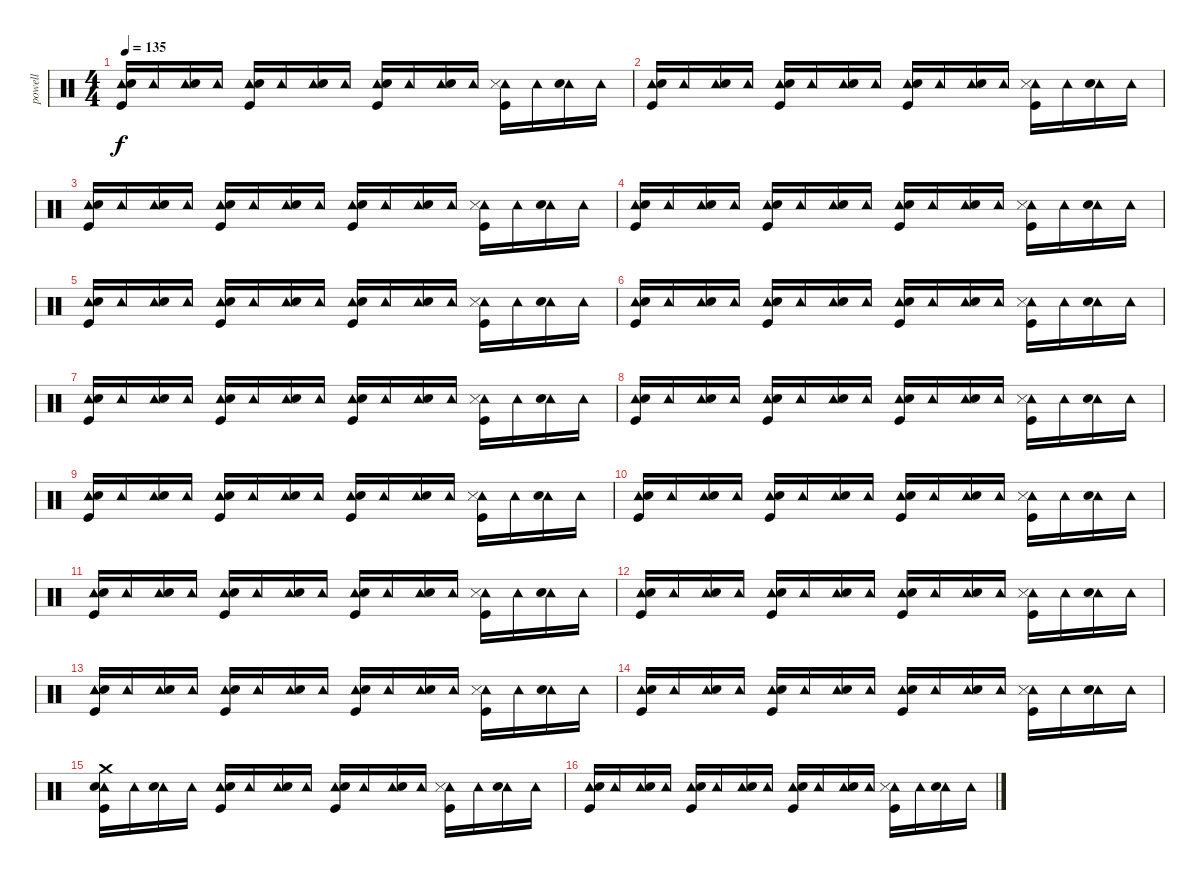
\track ("powell" "powell") {instrument percussion}
\staff {score}
\articulation defaults
\ts (4 4)
\tempo 135
\clef neutral
\ks c
("Tambourine (hit)" "Electric Snare (hit)" "Kick (hit)").16{dy f} "Tambourine (hit)".16 ("Tambourine (hit)" "Electric Snare (hit)").16 "Tambourine (hit)".16 ("Tambourine (hit)" "Electric Snare (hit)" "Kick (hit)").16 "Tambourine (hit)".16 ("Tambourine (hit)" "Electric Snare (hit)").16 "Tambourine (hit)".16 ("Tambourine (hit)" "Electric Snare (hit)" "Kick (hit)").16 "Tambourine (hit)".16 ("Tambourine (hit)" "Electric Snare (hit)").16 "Tambourine (hit)".16 ("Tambourine (hit)" "Snare (side stick) 3" "Kick (hit)").16 "Tambourine (hit)".16 ("Tambourine (hit)" "Electric Snare (hit)").16 "Tambourine (hit)".16 |
("Tambourine (hit)" "Electric Snare (hit)" "Kick (hit)").16 "Tambourine (hit)".16 ("Tambourine (hit)" "Electric Snare (hit)").16 "Tambourine (hit)".16 ("Tambourine (hit)" "Electric Snare (hit)" "Kick (hit)").16 "Tambourine (hit)".16 ("Tambourine (hit)" "Electric Snare (hit)").16 "Tambourine (hit)".16 ("Tambourine (hit)" "Electric Snare (hit)" "Kick (hit)").16 "Tambourine (hit)".16 ("Tambourine (hit)" "Electric Snare (hit)").16 "Tambourine (hit)".16 ("Tambourine (hit)" "Snare (side stick) 3" "Kick (hit)").16 "Tambourine (hit)".16 ("Tambourine (hit)" "Electric Snare (hit)").16 "Tambourine (hit)".16 |
("Tambourine (hit)" "Electric Snare (hit)" "Kick (hit)").16 "Tambourine (hit)".16 ("Tambourine (hit)" "Electric Snare (hit)").16 "Tambourine (hit)".16 ("Tambourine (hit)" "Electric Snare (hit)" "Kick (hit)").16 "Tambourine (hit)".16 ("Tambourine (hit)" "Electric Snare (hit)").16 "Tambourine (hit)".16 ("Tambourine (hit)" "Electric Snare (hit)" "Kick (hit)").16 "Tambourine (hit)".16 ("Tambourine (hit)" "Electric Snare (hit)").16 "Tambourine (hit)".16 ("Tambourine (hit)" "Snare (side stick) 3" "Kick (hit)").16 "Tambourine (hit)".16 ("Tambourine (hit)" "Electric Snare (hit)").16 "Tambourine (hit)".16 |
("Tambourine (hit)" "Electric Snare (hit)" "Kick (hit)").16 "Tambourine (hit)".16 ("Tambourine (hit)" "Electric Snare (hit)").16 "Tambourine (hit)".16 ("Tambourine (hit)" "Electric Snare (hit)" "Kick (hit)").16 "Tambourine (hit)".16 ("Tambourine (hit)" "Electric Snare (hit)").16 "Tambourine (hit)".16 ("Tambourine (hit)" "Electric Snare (hit)" "Kick (hit)").16 "Tambourine (hit)".16 ("Tambourine (hit)" "Electric Snare (hit)").16 "Tambourine (hit)".16 ("Tambourine (hit)" "Snare (side stick) 3" "Kick (hit)").16 "Tambourine (hit)".16 ("Tambourine (hit)" "Electric Snare (hit)").16 "Tambourine (hit)".16 |
("Tambourine (hit)" "Electric Snare (hit)" "Kick (hit)").16 "Tambourine (hit)".16 ("Tambourine (hit)" "Electric Snare (hit)").16 "Tambourine (hit)".16 ("Tambourine (hit)" "Electric Snare (hit)" "Kick (hit)").16 "Tambourine (hit)".16 ("Tambourine (hit)" "Electric Snare (hit)").16 "Tambourine (hit)".16 ("Tambourine (hit)" "Electric Snare (hit)" "Kick (hit)").16 "Tambourine (hit)".16 ("Tambourine (hit)" "Electric Snare (hit)").16 "Tambourine (hit)".16 ("Tambourine (hit)" "Snare (side stick) 3" "Kick (hit)").16 "Tambourine (hit)".16 ("Tambourine (hit)" "Electric Snare (hit)").16 "Tambourine (hit)".16 |
("Tambourine (hit)" "Electric Snare (hit)" "Kick (hit)").16 "Tambourine (hit)".16 ("Tambourine (hit)" "Electric Snare (hit)").16 "Tambourine (hit)".16 ("Tambourine (hit)" "Electric Snare (hit)" "Kick (hit)").16 "Tambourine (hit)".16 ("Tambourine (hit)" "Electric Snare (hit)").16 "Tambourine (hit)".16 ("Tambourine (hit)" "Electric Snare (hit)" "Kick (hit)").16 "Tambourine (hit)".16 ("Tambourine (hit)" "Electric Snare (hit)").16 "Tambourine (hit)".16 ("Tambourine (hit)" "Snare (side stick) 3" "Kick (hit)").16 "Tambourine (hit)".16 ("Tambourine (hit)" "Electric Snare (hit)").16 "Tambourine (hit)".16 |
("Tambourine (hit)" "Electric Snare (hit)" "Kick (hit)").16 "Tambourine (hit)".16 ("Tambourine (hit)" "Electric Snare (hit)").16 "Tambourine (hit)".16 ("Tambourine (hit)" "Electric Snare (hit)" "Kick (hit)").16 "Tambourine (hit)".16 ("Tambourine (hit)" "Electric Snare (hit)").16 "Tambourine (hit)".16 ("Tambourine (hit)" "Electric Snare (hit)" "Kick (hit)").16 "Tambourine (hit)".16 ("Tambourine (hit)" "Electric Snare (hit)").16 "Tambourine (hit)".16 ("Tambourine (hit)" "Snare (side stick) 3" "Kick (hit)").16 "Tambourine (hit)".16 ("Tambourine (hit)" "Electric Snare (hit)").16 "Tambourine (hit)".16 |
("Tambourine (hit)" "Electric Snare (hit)" "Kick (hit)").16 "Tambourine (hit)".16 ("Tambourine (hit)" "Electric Snare (hit)").16 "Tambourine (hit)".16 ("Tambourine (hit)" "Electric Snare (hit)" "Kick (hit)").16 "Tambourine (hit)".16 ("Tambourine (hit)" "Electric Snare (hit)").16 "Tambourine (hit)".16 ("Tambourine (hit)" "Electric Snare (hit)" "Kick (hit)").16 "Tambourine (hit)".16 ("Tambourine (hit)" "Electric Snare (hit)").16 "Tambourine (hit)".16 ("Tambourine (hit)" "Snare (side stick) 3" "Kick (hit)").16 "Tambourine (hit)".16 ("Tambourine (hit)" "Electric Snare (hit)").16 "Tambourine (hit)".16 |
("Tambourine (hit)" "Electric Snare (hit)" "Kick (hit)").16 "Tambourine (hit)".16 ("Tambourine (hit)" "Electric Snare (hit)").16 "Tambourine (hit)".16 ("Tambourine (hit)" "Electric Snare (hit)" "Kick (hit)").16 "Tambourine (hit)".16 ("Tambourine (hit)" "Electric Snare (hit)").16 "Tambourine (hit)".16 ("Tambourine (hit)" "Electric Snare (hit)" "Kick (hit)").16 "Tambourine (hit)".16 ("Tambourine (hit)" "Electric Snare (hit)").16 "Tambourine (hit)".16 ("Tambourine (hit)" "Snare (side stick) 3" "Kick (hit)").16 "Tambourine (hit)".16 ("Tambourine (hit)" "Electric Snare (hit)").16 "Tambourine (hit)".16 |
("Tambourine (hit)" "Electric Snare (hit)" "Kick (hit)").16 "Tambourine (hit)".16 ("Tambourine (hit)" "Electric Snare (hit)").16 "Tambourine (hit)".16 ("Tambourine (hit)" "Electric Snare (hit)" "Kick (hit)").16 "Tambourine (hit)".16 ("Tambourine (hit)" "Electric Snare (hit)").16 "Tambourine (hit)".16 ("Tambourine (hit)" "Electric Snare (hit)" "Kick (hit)").16 "Tambourine (hit)".16 ("Tambourine (hit)" "Electric Snare (hit)").16 "Tambourine (hit)".16 ("Tambourine (hit)" "Snare (side stick) 3" "Kick (hit)").16 "Tambourine (hit)".16 ("Tambourine (hit)" "Electric Snare (hit)").16 "Tambourine (hit)".16 |
("Tambourine (hit)" "Electric Snare (hit)" "Kick (hit)").16 "Tambourine (hit)".16 ("Tambourine (hit)" "Electric Snare (hit)").16 "Tambourine (hit)".16 ("Tambourine (hit)" "Electric Snare (hit)" "Kick (hit)").16 "Tambourine (hit)".16 ("Tambourine (hit)" "Electric Snare (hit)").16 "Tambourine (hit)".16 ("Tambourine (hit)" "Electric Snare (hit)" "Kick (hit)").16 "Tambourine (hit)".16 ("Tambourine (hit)" "Electric Snare (hit)").16 "Tambourine (hit)".16 ("Tambourine (hit)" "Snare (side stick) 3" "Kick (hit)").16 "Tambourine (hit)".16 ("Tambourine (hit)" "Electric Snare (hit)").16 "Tambourine (hit)".16 |
("Tambourine (hit)" "Electric Snare (hit)" "Kick (hit)").16 "Tambourine (hit)".16 ("Tambourine (hit)" "Electric Snare (hit)").16 "Tambourine (hit)".16 ("Tambourine (hit)" "Electric Snare (hit)" "Kick (hit)").16 "Tambourine (hit)".16 ("Tambourine (hit)" "Electric Snare (hit)").16 "Tambourine (hit)".16 ("Tambourine (hit)" "Electric Snare (hit)" "Kick (hit)").16 "Tambourine (hit)".16 ("Tambourine (hit)" "Electric Snare (hit)").16 "Tambourine (hit)".16 ("Tambourine (hit)" "Snare (side stick) 3" "Kick (hit)").16 "Tambourine (hit)".16 ("Tambourine (hit)" "Electric Snare (hit)").16 "Tambourine (hit)".16 |
("Tambourine (hit)" "Electric Snare (hit)" "Kick (hit)").16 "Tambourine (hit)".16 ("Tambourine (hit)" "Electric Snare (hit)").16 "Tambourine (hit)".16 ("Tambourine (hit)" "Electric Snare (hit)" "Kick (hit)").16 "Tambourine (hit)".16 ("Tambourine (hit)" "Electric Snare (hit)").16 "Tambourine (hit)".16 ("Tambourine (hit)" "Electric Snare (hit)" "Kick (hit)").16 "Tambourine (hit)".16 ("Tambourine (hit)" "Electric Snare (hit)").16 "Tambourine (hit)".16 ("Tambourine (hit)" "Snare (side stick) 3" "Kick (hit)").16 "Tambourine (hit)".16 ("Tambourine (hit)" "Electric Snare (hit)").16 "Tambourine (hit)".16 |
("Tambourine (hit)" "Electric Snare (hit)" "Kick (hit)").16 "Tambourine (hit)".16 ("Tambourine (hit)" "Electric Snare (hit)").16 "Tambourine (hit)".16 ("Tambourine (hit)" "Electric Snare (hit)" "Kick (hit)").16 "Tambourine (hit)".16 ("Tambourine (hit)" "Electric Snare (hit)").16 "Tambourine (hit)".16 ("Tambourine (hit)" "Electric Snare (hit)" "Kick (hit)").16 "Tambourine (hit)".16 ("Tambourine (hit)" "Electric Snare (hit)").16 "Tambourine (hit)".16 ("Tambourine (hit)" "Snare (side stick) 3" "Kick (hit)").16 "Tambourine (hit)".16 ("Tambourine (hit)" "Electric Snare (hit)").16 "Tambourine (hit)".16 |
("Tambourine (hit)" "Electric Snare (hit)" "Crash medium (hit)" "Kick (hit)").16 "Tambourine (hit)".16 ("Tambourine (hit)" "Electric Snare (hit)").16 "Tambourine (hit)".16 ("Tambourine (hit)" "Electric Snare (hit)" "Kick (hit)").16 "Tambourine (hit)".16 ("Tambourine (hit)" "Electric Snare (hit)").16 "Tambourine (hit)".16 ("Tambourine (hit)" "Electric Snare (hit)" "Kick (hit)").16 "Tambourine (hit)".16 ("Tambourine (hit)" "Electric Snare (hit)").16 "Tambourine (hit)".16 ("Tambourine (hit)" "Snare (side stick) 3" "Kick (hit)").16 "Tambourine (hit)".16 ("Tambourine (hit)" "Electric Snare (hit)").16 "Tambourine (hit)".16 |
("Tambourine (hit)" "Electric Snare (hit)" "Kick (hit)").16 "Tambourine (hit)".16 ("Tambourine (hit)" "Electric Snare (hit)").16 "Tambourine (hit)".16 ("Tambourine (hit)" "Electric Snare (hit)" "Kick (hit)").16 "Tambourine (hit)".16 ("Tambourine (hit)" "Electric Snare (hit)").16 "Tambourine (hit)".16 ("Tambourine (hit)" "Electric Snare (hit)" "Kick (hit)").16 "Tambourine (hit)".16 ("Tambourine (hit)" "Electric Snare (hit)").16 "Tambourine (hit)".16 ("Tambourine (hit)" "Snare (side stick) 3" "Kick (hit)").16 "Tambourine (hit)".16 ("Tambourine (hit)" "Electric Snare (hit)").16 "Tambourine (hit)".16
